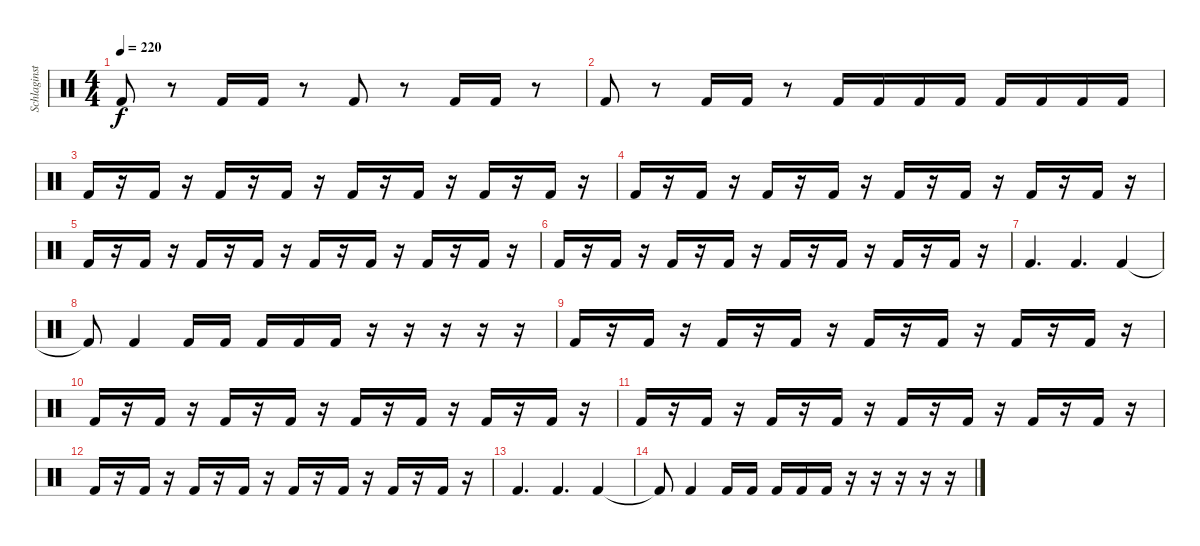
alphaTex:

\track ("Schlaginstrumente - Auswahl" "Schlaginst") {instrument percussion}
\staff {score}
\articulation defaults
\ts (4 4)
\tempo 220
\clef neutral
\ks c "Kick (hit) 2".8{dy f}
r.8 "Kick (hit) 2".16 "Kick (hit) 2".16 r.8 "Kick (hit) 2".8 r.8 "Kick (hit) 2".16 "Kick (hit) 2".16 r.8 |
"Kick (hit) 2".8 r.8 "Kick (hit) 2".16 "Kick (hit) 2".16 r.8 "Kick (hit) 2".16 "Kick (hit) 2".16 "Kick (hit) 2".16 "Kick (hit) 2".16 "Kick (hit) 2".16 "Kick (hit) 2".16 "Kick (hit) 2".16 "Kick (hit) 2".16 |
"Kick (hit) 2".16 r.16 "Kick (hit) 2".16 r.16 "Kick (hit) 2".16 r.16 "Kick (hit) 2".16 r.16 "Kick (hit) 2".16 r.16 "Kick (hit) 2".16 r.16 "Kick (hit) 2".16 r.16 "Kick (hit) 2".16 r.16 |
"Kick (hit) 2".16 r.16 "Kick (hit) 2".16 r.16 "Kick (hit) 2".16 r.16 "Kick (hit) 2".16 r.16 "Kick (hit) 2".16 r.16 "Kick (hit) 2".16 r.16 "Kick (hit) 2".16 r.16 "Kick (hit) 2".16 r.16 |
"Kick (hit) 2".16 r.16 "Kick (hit) 2".16 r.16 "Kick (hit) 2".16 r.16 "Kick (hit) 2".16 r.16 "Kick (hit) 2".16 r.16 "Kick (hit) 2".16 r.16 "Kick (hit) 2".16 r.16 "Kick (hit) 2".16 r.16 |
"Kick (hit) 2".16 r.16 "Kick (hit) 2".16 r.16 "Kick (hit) 2".16 r.16 "Kick (hit) 2".16 r.16 "Kick (hit) 2".16 r.16 "Kick (hit) 2".16 r.16 "Kick (hit) 2".16 r.16 "Kick (hit) 2".16 r.16 |
"Kick (hit) 2".4{d} "Kick (hit) 2".4{d} "Kick (hit) 2".4 |
"Kick (hit) 2"{t}.8 "Kick (hit) 2".4 "Kick (hit) 2".16 "Kick (hit) 2".16 "Kick (hit) 2".16 "Kick (hit) 2".16 "Kick (hit) 2".16 r.16 r.16 r.16 r.16 r.16 |
"Kick (hit) 2".16 r.16 "Kick (hit) 2".16 r.16 "Kick (hit) 2".16 r.16 "Kick (hit) 2".16 r.16 "Kick (hit) 2".16 r.16 "Kick (hit) 2".16 r.16 "Kick (hit) 2".16 r.16 "Kick (hit) 2".16 r.16 |
"Kick (hit) 2".16 r.16 "Kick (hit) 2".16 r.16 "Kick (hit) 2".16 r.16 "Kick (hit) 2".16 r.16 "Kick (hit) 2".16 r.16 "Kick (hit) 2".16 r.16 "Kick (hit) 2".16 r.16 "Kick (hit) 2".16 r.16 |
"Kick (hit) 2".16 r.16 "Kick (hit) 2".16 r.16 "Kick (hit) 2".16 r.16 "Kick (hit) 2".16 r.16 "Kick (hit) 2".16 r.16 "Kick (hit) 2".16 r.16 "Kick (hit) 2".16 r.16 "Kick (hit) 2".16 r.16 |
"Kick (hit) 2".16 r.16 "Kick (hit) 2".16 r.16 "Kick (hit) 2".16 r.16 "Kick (hit) 2".16 r.16 "Kick (hit) 2".16 r.16 "Kick (hit) 2".16 r.16 "Kick (hit) 2".16 r.16 "Kick (hit) 2".16 r.16 |
"Kick (hit) 2".4{d} "Kick (hit) 2".4{d} "Kick (hit) 2".4 |
"Kick (hit) 2"{t}.8 "Kick (hit) 2".4 "Kick (hit) 2".16 "Kick (hit) 2".16 "Kick (hit) 2".16 "Kick (hit) 2".16 "Kick (hit) 2".16 r.16 r.16 r.16 r.16 r.16
